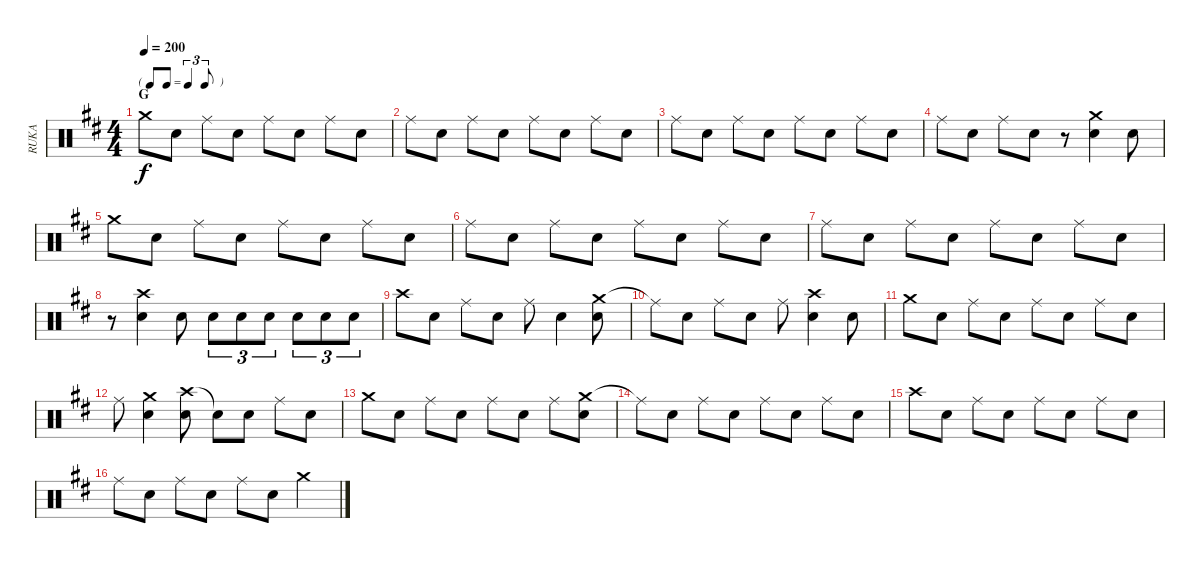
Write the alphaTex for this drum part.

\track ("RUKA" "RUKA") {instrument percussion}
\staff {score}
\articulation defaults
\ts (4 4)
\tf triplet8th
\section ("" "G")
\tempo 200
\clef neutral
\ks d "Crash medium (hit)".8{dy f} "Snare (hit) 2".8 "Ride (middle)".8 "Snare (hit) 2".8 "Ride (middle)".8 "Snare (hit) 2".8 "Ride (middle)".8 "Snare (hit) 2".8
|
"Ride (middle)".8 "Snare (hit) 2".8 "Ride (middle)".8 "Snare (hit) 2".8 "Ride (middle)".8 "Snare (hit) 2".8 "Ride (middle)".8 "Snare (hit) 2".8 |
"Ride (middle)".8 "Snare (hit) 2".8 "Ride (middle)".8 "Snare (hit) 2".8 "Ride (middle)".8 "Snare (hit) 2".8 "Ride (middle)".8 "Snare (hit) 2".8 |
"Ride (middle)".8 "Snare (hit) 2".8 "Ride (middle)".8 "Snare (hit) 2".8 r.8 ("Crash medium (hit)" "Snare (hit) 2").4 "Snare (hit) 2".8 |
"Crash medium (hit)".8 "Snare (hit) 2".8 "Ride (middle)".8 "Snare (hit) 2".8 "Ride (middle)".8 "Snare (hit) 2".8 "Ride (middle)".8 "Snare (hit) 2".8 |
"Ride (middle)".8 "Snare (hit) 2".8 "Ride (middle)".8 "Snare (hit) 2".8 "Ride (middle)".8 "Snare (hit) 2".8 "Ride (middle)".8 "Snare (hit) 2".8 |
"Ride (middle)".8 "Snare (hit) 2".8 "Ride (middle)".8 "Snare (hit) 2".8 "Ride (middle)".8 "Snare (hit) 2".8 "Ride (middle)".8 "Snare (hit) 2".8 |
r.8 ("Crash high (hit)" "Snare (hit) 2").4 "Snare (hit) 2".8 "Snare (hit) 2".8{tu (3 2)} "Snare (hit) 2".8{tu (3 2)} "Snare (hit) 2".8{tu (3 2)} "Snare (hit) 2".8{tu (3 2)} "Snare (hit) 2".8{tu (3 2)} "Snare (hit) 2".8{tu (3 2)} |
"Crash high (hit)".8 "Snare (hit) 2".8 "Ride (middle)".8 "Snare (hit) 2".8 "Ride (middle)".8 "Snare (hit) 2".4 ("Crash medium (hit)" "Snare (hit) 2").8 |
"Ride (middle)"{t}.8 "Snare (hit) 2".8 "Ride (middle)".8 "Snare (hit) 2".8 "Ride (middle)".8 ("Crash high (hit)" "Snare (hit) 2").4 "Snare (hit) 2".8 |
"Crash medium (hit)".8 "Snare (hit) 2".8 "Ride (middle)".8 "Snare (hit) 2".8 "Ride (middle)".8 "Snare (hit) 2".8 "Ride (middle)".8 "Snare (hit) 2".8 |
"Ride (middle)".8 ("Crash medium (hit)" "Snare (hit) 2").4 ("Crash high (hit)" "Snare (hit) 2").8 "Snare (hit)"{t}.8 "Snare (hit) 2".8 "Ride (middle)".8 "Snare (hit) 2".8 |
"Crash medium (hit)".8 "Snare (hit) 2".8 "Ride (middle)".8 "Snare (hit) 2".8 "Ride (middle)".8 "Snare (hit) 2".8 "Ride (middle)".8 ("Crash medium (hit)" "Snare (hit) 2").8 |
"Ride (middle)"{t}.8 "Snare (hit) 2".8 "Ride (middle)".8 "Snare (hit) 2".8 "Ride (middle)".8 "Snare (hit) 2".8 "Ride (middle)".8 "Snare (hit) 2".8 |
"Crash high (hit)".8 "Snare (hit) 2".8 "Ride (middle)".8 "Snare (hit) 2".8 "Ride (middle)".8 "Snare (hit) 2".8 "Ride (middle)".8 "Snare (hit) 2".8 |
"Ride (middle)".8 "Snare (hit) 2".8 "Ride (middle)".8 "Snare (hit) 2".8 "Ride (middle)".8 "Snare (hit) 2".8 "Crash medium (hit)".4
